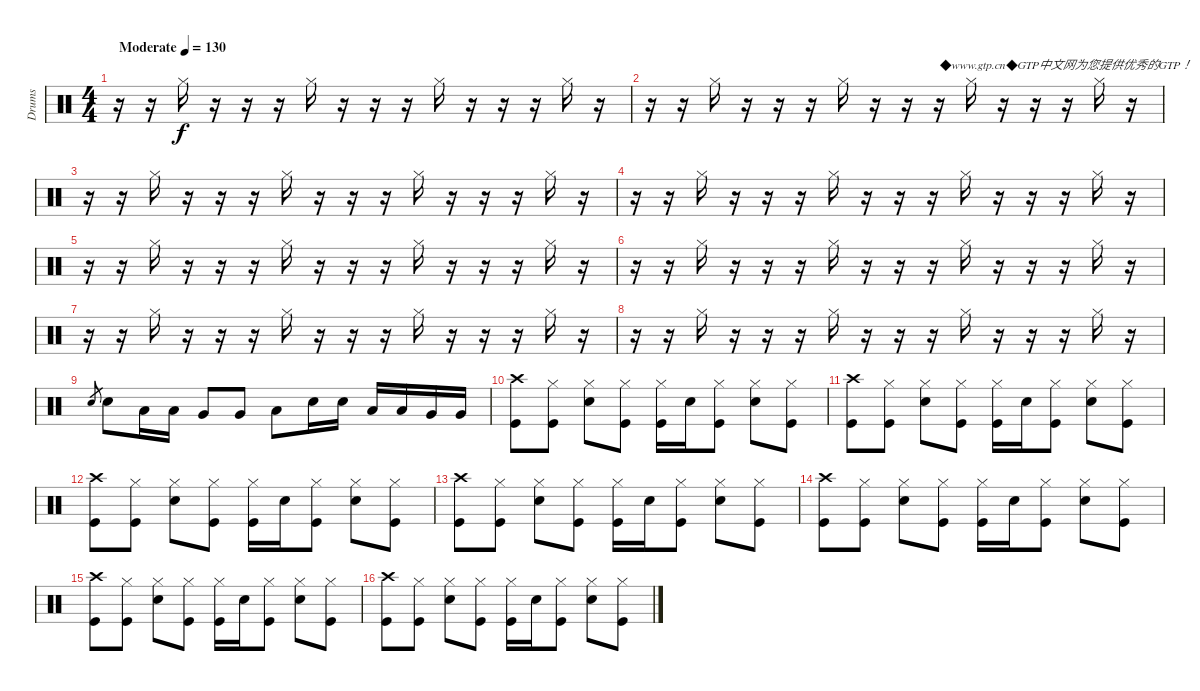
\track ("Drums" "Drums") {instrument percussion}
\staff {score}
\articulation defaults
\ts (4 4)
\tempo (130 "Moderate")
\clef neutral
\ks c
r.16{dy f} r.16 "Hi-Hat (closed)".16 r.16 r.16 r.16 "Hi-Hat (closed)".16 r.16 r.16 r.16 "Hi-Hat (closed)".16 r.16 r.16 r.16 "Hi-Hat (closed)".16 r.16 |
r.16 r.16 "Hi-Hat (closed)".16 r.16 r.16 r.16 "Hi-Hat (closed)".16 r.16 r.16 r.16{txt "◆www.gtp.cn◆GTP中文网为您提供优秀的GTP！"} "Hi-Hat (closed)".16 r.16 r.16 r.16 "Hi-Hat (closed)".16 r.16 |
r.16 r.16 "Hi-Hat (closed)".16 r.16 r.16 r.16 "Hi-Hat (closed)".16 r.16 r.16 r.16 "Hi-Hat (closed)".16 r.16 r.16 r.16 "Hi-Hat (closed)".16 r.16 |
r.16 r.16 "Hi-Hat (closed)".16 r.16 r.16 r.16 "Hi-Hat (closed)".16 r.16 r.16 r.16 "Hi-Hat (closed)".16 r.16 r.16 r.16 "Hi-Hat (closed)".16 r.16 |
r.16 r.16 "Hi-Hat (closed)".16 r.16 r.16 r.16 "Hi-Hat (closed)".16 r.16 r.16 r.16 "Hi-Hat (closed)".16 r.16 r.16 r.16 "Hi-Hat (closed)".16 r.16 |
r.16 r.16 "Hi-Hat (closed)".16 r.16 r.16 r.16 "Hi-Hat (closed)".16 r.16 r.16 r.16 "Hi-Hat (closed)".16 r.16 r.16 r.16 "Hi-Hat (closed)".16 r.16 |
r.16 r.16 "Hi-Hat (closed)".16 r.16 r.16 r.16 "Hi-Hat (closed)".16 r.16 r.16 r.16 "Hi-Hat (closed)".16 r.16 r.16 r.16 "Hi-Hat (closed)".16 r.16 |
r.16 r.16 "Hi-Hat (closed)".16 r.16 r.16 r.16 "Hi-Hat (closed)".16 r.16 r.16 r.16 "Hi-Hat (closed)".16 r.16 r.16 r.16 "Hi-Hat (closed)".16 r.16 |
"Snare (hit) 2".8{gr} "Snare (hit) 2".8 "Low Tom (hit)".16 "Low Tom (hit)".16 "Very Low Tom (hit)".8 "Very Low Tom (hit)".8 "Low Tom (hit)".8 "Snare (hit) 2".16 "Snare (hit) 2".16 "Low Tom (hit)".16 "Low Tom (hit)".16 "Very Low Tom (hit)".16 "Very Low Tom (hit)".16 |
("Crash high (hit)" "Kick (hit)").8 ("Hi-Hat (closed)" "Kick (hit)").8 ("Hi-Hat (closed)" "Snare (hit) 2").8 ("Hi-Hat (closed)" "Kick (hit)").8 ("Hi-Hat (closed)" "Kick (hit)").16 "Snare (hit) 2".16 ("Hi-Hat (closed)" "Kick (hit)").8 ("Hi-Hat (closed)" "Snare (hit) 2").8 ("Hi-Hat (closed)" "Kick (hit)").8 |
("Crash high (hit)" "Kick (hit)").8 ("Hi-Hat (closed)" "Kick (hit)").8 ("Hi-Hat (closed)" "Snare (hit) 2").8 ("Hi-Hat (closed)" "Kick (hit)").8 ("Hi-Hat (closed)" "Kick (hit)").16 "Snare (hit) 2".16 ("Hi-Hat (closed)" "Kick (hit)").8 ("Hi-Hat (closed)" "Snare (hit) 2").8 ("Hi-Hat (closed)" "Kick (hit)").8 |
("Crash high (hit)" "Kick (hit)").8 ("Hi-Hat (closed)" "Kick (hit)").8 ("Hi-Hat (closed)" "Snare (hit) 2").8 ("Hi-Hat (closed)" "Kick (hit)").8 ("Hi-Hat (closed)" "Kick (hit)").16 "Snare (hit) 2".16 ("Hi-Hat (closed)" "Kick (hit)").8 ("Hi-Hat (closed)" "Snare (hit) 2").8 ("Hi-Hat (closed)" "Kick (hit)").8 |
("Crash high (hit)" "Kick (hit)").8 ("Hi-Hat (closed)" "Kick (hit)").8 ("Hi-Hat (closed)" "Snare (hit) 2").8 ("Hi-Hat (closed)" "Kick (hit)").8 ("Hi-Hat (closed)" "Kick (hit)").16 "Snare (hit) 2".16 ("Hi-Hat (closed)" "Kick (hit)").8 ("Hi-Hat (closed)" "Snare (hit) 2").8 ("Hi-Hat (closed)" "Kick (hit)").8 |
("Crash high (hit)" "Kick (hit)").8 ("Hi-Hat (closed)" "Kick (hit)").8 ("Hi-Hat (closed)" "Snare (hit) 2").8 ("Hi-Hat (closed)" "Kick (hit)").8 ("Hi-Hat (closed)" "Kick (hit)").16 "Snare (hit) 2".16 ("Hi-Hat (closed)" "Kick (hit)").8 ("Hi-Hat (closed)" "Snare (hit) 2").8 ("Hi-Hat (closed)" "Kick (hit)").8 |
("Crash high (hit)" "Kick (hit)").8 ("Hi-Hat (closed)" "Kick (hit)").8 ("Hi-Hat (closed)" "Snare (hit) 2").8 ("Hi-Hat (closed)" "Kick (hit)").8 ("Hi-Hat (closed)" "Kick (hit)").16 "Snare (hit) 2".16 ("Hi-Hat (closed)" "Kick (hit)").8 ("Hi-Hat (closed)" "Snare (hit) 2").8 ("Hi-Hat (closed)" "Kick (hit)").8 |
("Crash high (hit)" "Kick (hit)").8 ("Hi-Hat (closed)" "Kick (hit)").8 ("Hi-Hat (closed)" "Snare (hit) 2").8 ("Hi-Hat (closed)" "Kick (hit)").8 ("Hi-Hat (closed)" "Kick (hit)").16 "Snare (hit) 2".16 ("Hi-Hat (closed)" "Kick (hit)").8 ("Hi-Hat (closed)" "Snare (hit) 2").8 ("Hi-Hat (closed)" "Kick (hit)").8
